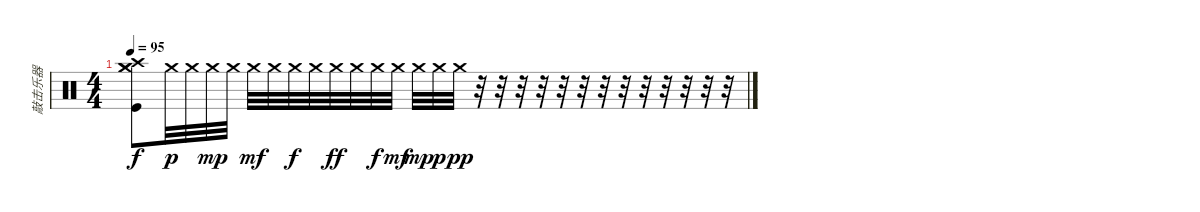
\track ("敲击乐器" "敲击乐器") {instrument percussion}
\staff {score}
\articulation defaults
\ts (4 4)
\tempo 95
\clef neutral
\ks c
("Crash medium (hit)" "Crash high (hit)" "Crash medium (hit)" "Kick (hit)").8{dy f} "Crash medium (hit)".32{dy p} "Crash medium (hit)".32 "Crash medium (hit)".32{dy mp} "Crash medium (hit)".32 "Crash medium (hit)".32{dy mf} "Crash medium (hit)".32 "Crash medium (hit)".32{dy f} "Crash medium (hit)".32 "Crash medium (hit)".32{dy ff} "Crash medium (hit)".32 "Crash medium (hit)".32{dy f} "Crash medium (hit)".32{dy mf} "Crash medium (hit)".32{dy mp} "Crash medium (hit)".32{dy p} "Crash medium (hit)".32{dy pp} r.32 r.32 r.32 r.32 r.32 r.32 r.32 r.32 r.32 r.32 r.32 r.32 r.32
